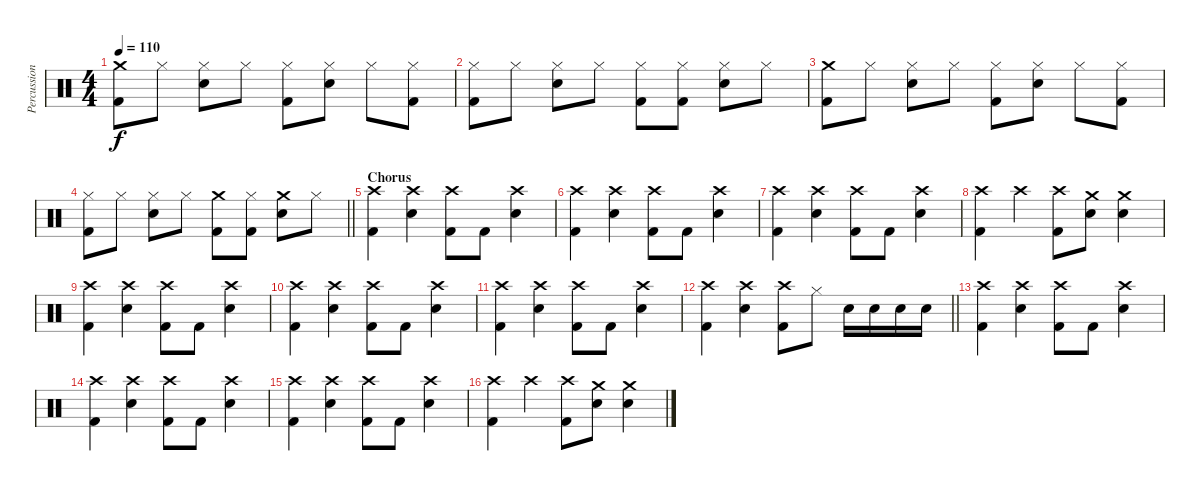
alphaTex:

\track ("Percussion" "Percussion") {instrument percussion}
\staff {score}
\articulation defaults
\ts (4 4)
\tempo 110
\clef neutral
\ks c
("Crash medium (hit)" "Kick (hit) 2").8{dy f} "Hi-Hat (closed)".8 ("Hi-Hat (closed)" "Electric Snare (hit)").8 "Hi-Hat (closed)".8 ("Hi-Hat (closed)" "Kick (hit) 2").8 ("Hi-Hat (closed)" "Electric Snare (hit)").8 "Hi-Hat (closed)".8 ("Hi-Hat (closed)" "Kick (hit) 2").8 |
("Hi-Hat (closed)" "Kick (hit) 2").8 "Hi-Hat (closed)".8 ("Hi-Hat (closed)" "Electric Snare (hit)").8 "Hi-Hat (closed)".8 ("Hi-Hat (closed)" "Kick (hit) 2").8 ("Hi-Hat (closed)" "Kick (hit) 2").8 ("Hi-Hat (closed)" "Electric Snare (hit)").8 "Hi-Hat (closed)".8 |
("Crash medium (hit)" "Kick (hit) 2").8 "Hi-Hat (closed)".8 ("Hi-Hat (closed)" "Electric Snare (hit)").8 "Hi-Hat (closed)".8 ("Hi-Hat (closed)" "Kick (hit) 2").8 ("Hi-Hat (closed)" "Electric Snare (hit)").8 "Hi-Hat (closed)".8 ("Hi-Hat (closed)" "Kick (hit) 2").8 |
\barLineRight lightlight
("Hi-Hat (closed)" "Kick (hit) 2").8 "Hi-Hat (closed)".8 ("Hi-Hat (closed)" "Electric Snare (hit)").8 "Hi-Hat (closed)".8 ("Crash medium (hit)" "Kick (hit) 2").8 ("Hi-Hat (closed)" "Kick (hit) 2").8 ("Crash medium (hit)" "Electric Snare (hit)").8 "Hi-Hat (closed)".8 |
\section ("" "Chorus")
("Crash high (hit)" "Kick (hit) 2").4 ("Crash high (hit)" "Electric Snare (hit)").4 ("Crash high (hit)" "Kick (hit) 2").8 "Kick (hit) 2".8 ("Crash high (hit)" "Electric Snare (hit)").4 |
("Crash high (hit)" "Kick (hit) 2").4 ("Crash high (hit)" "Electric Snare (hit)").4 ("Crash high (hit)" "Kick (hit) 2").8 "Kick (hit) 2".8 ("Crash high (hit)" "Electric Snare (hit)").4 |
("Crash high (hit)" "Kick (hit) 2").4 ("Crash high (hit)" "Electric Snare (hit)").4 ("Crash high (hit)" "Kick (hit) 2").8 "Kick (hit) 2".8 ("Crash high (hit)" "Electric Snare (hit)").4 |
("Crash high (hit)" "Kick (hit) 2").4 "Crash high (hit)".4 ("Crash high (hit)" "Kick (hit) 2").8 ("Crash medium (hit)" "Electric Snare (hit)").8 ("Crash medium (hit)" "Electric Snare (hit)").4 |
("Crash high (hit)" "Kick (hit) 2").4 ("Crash high (hit)" "Electric Snare (hit)").4 ("Crash high (hit)" "Kick (hit) 2").8 "Kick (hit) 2".8 ("Crash high (hit)" "Electric Snare (hit)").4 |
("Crash high (hit)" "Kick (hit) 2").4 ("Crash high (hit)" "Electric Snare (hit)").4 ("Crash high (hit)" "Kick (hit) 2").8 "Kick (hit) 2".8 ("Crash high (hit)" "Electric Snare (hit)").4 |
("Crash high (hit)" "Kick (hit) 2").4 ("Crash high (hit)" "Electric Snare (hit)").4 ("Crash high (hit)" "Kick (hit) 2").8 "Kick (hit) 2".8 ("Crash high (hit)" "Electric Snare (hit)").4 |
\barLineRight lightlight
("Crash high (hit)" "Kick (hit) 2").4 ("Crash high (hit)" "Electric Snare (hit)").4 ("Crash high (hit)" "Kick (hit) 2").8 "Hi-Hat (closed)".8 "Electric Snare (hit)".16 "Electric Snare (hit)".16 "Electric Snare (hit)".16 "Electric Snare (hit)".16 |
("Crash high (hit)" "Kick (hit) 2").4 ("Crash high (hit)" "Electric Snare (hit)").4 ("Crash high (hit)" "Kick (hit) 2").8 "Kick (hit) 2".8 ("Crash high (hit)" "Electric Snare (hit)").4 |
("Crash high (hit)" "Kick (hit) 2").4 ("Crash high (hit)" "Electric Snare (hit)").4 ("Crash high (hit)" "Kick (hit) 2").8 "Kick (hit) 2".8 ("Crash high (hit)" "Electric Snare (hit)").4 |
("Crash high (hit)" "Kick (hit) 2").4 ("Crash high (hit)" "Electric Snare (hit)").4 ("Crash high (hit)" "Kick (hit) 2").8 "Kick (hit) 2".8 ("Crash high (hit)" "Electric Snare (hit)").4 |
("Crash high (hit)" "Kick (hit) 2").4 "Crash high (hit)".4 ("Crash high (hit)" "Kick (hit) 2").8 ("Crash medium (hit)" "Electric Snare (hit)").8 ("Crash medium (hit)" "Electric Snare (hit)").4
